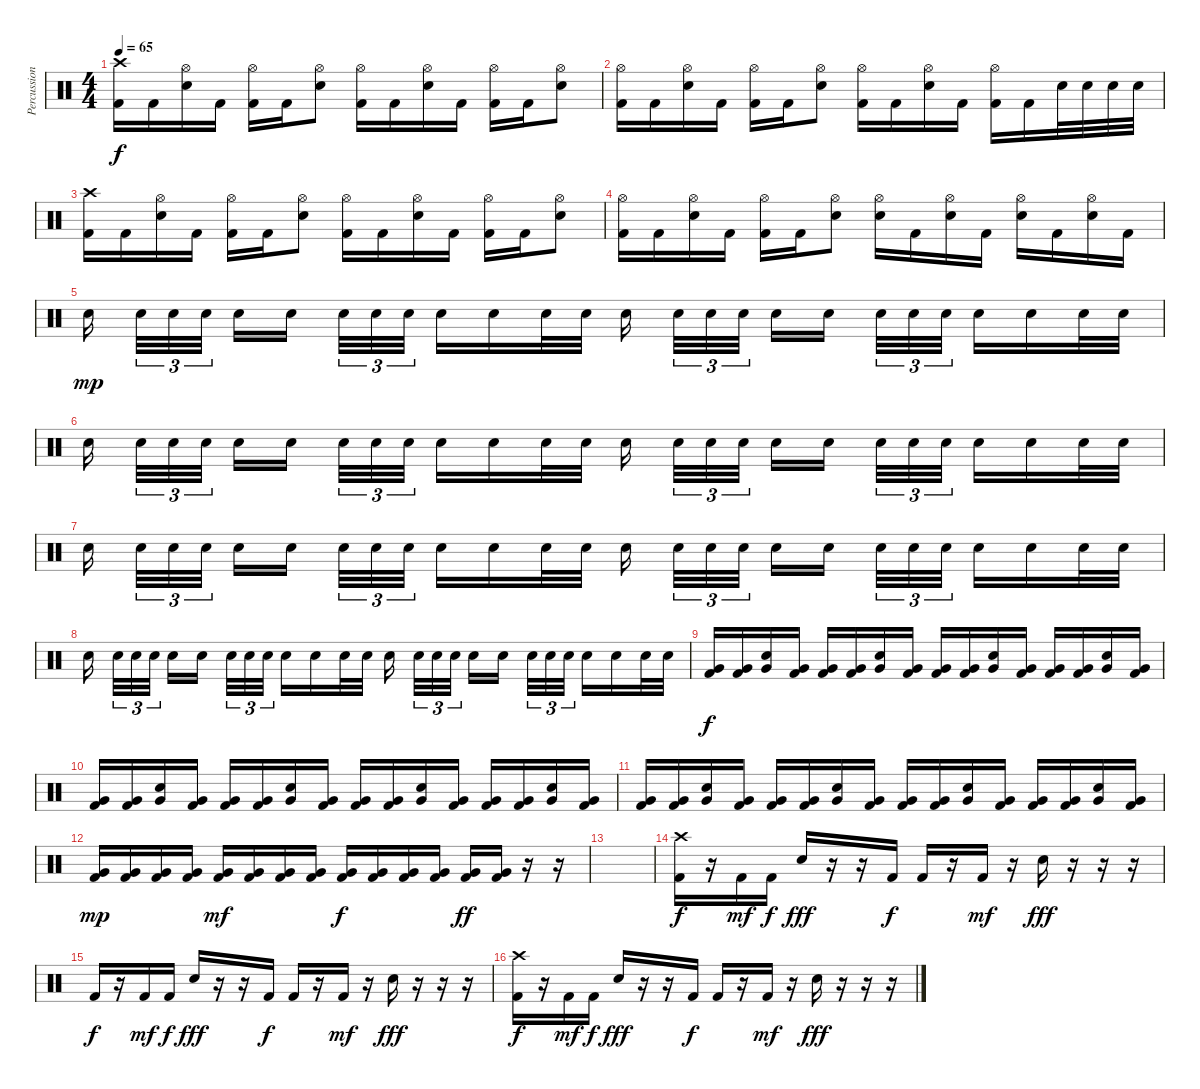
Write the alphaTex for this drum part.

\track ("Percussion" "Percussion") {instrument percussion}
\staff {score}
\articulation defaults
\ts (4 4)
\tempo 65
\clef neutral
\ks c
("Crash high (hit)" "Kick (hit) 2").16{dy f volume 13} "Kick (hit) 2".16 ("Hi-Hat (open)" "Snare (hit) 2").16 "Kick (hit) 2".16 ("Hi-Hat (open)" "Kick (hit) 2").16 "Kick (hit) 2".16 ("Hi-Hat (open)" "Snare (hit) 2").8 ("Hi-Hat (open)" "Kick (hit) 2").16 "Kick (hit) 2".16 ("Hi-Hat (open)" "Snare (hit) 2").16 "Kick (hit) 2".16 ("Hi-Hat (open)" "Kick (hit) 2").16 "Kick (hit) 2".16 ("Hi-Hat (open)" "Snare (hit) 2").8 |
("Hi-Hat (open)" "Kick (hit) 2").16 "Kick (hit) 2".16 ("Hi-Hat (open)" "Snare (hit) 2").16 "Kick (hit) 2".16 ("Hi-Hat (open)" "Kick (hit) 2").16 "Kick (hit) 2".16 ("Hi-Hat (open)" "Snare (hit) 2").8 ("Hi-Hat (open)" "Kick (hit) 2").16 "Kick (hit) 2".16 ("Hi-Hat (open)" "Snare (hit) 2").16 "Kick (hit) 2".16 ("Hi-Hat (open)" "Kick (hit) 2").16 "Kick (hit) 2".16 "Snare (hit) 2".32 "Snare (hit) 2".32 "Snare (hit) 2".32 "Snare (hit) 2".32 |
("Crash high (hit)" "Kick (hit) 2").16 "Kick (hit) 2".16 ("Hi-Hat (open)" "Snare (hit) 2").16 "Kick (hit) 2".16 ("Hi-Hat (open)" "Kick (hit) 2").16 "Kick (hit) 2".16 ("Hi-Hat (open)" "Snare (hit) 2").8 ("Hi-Hat (open)" "Kick (hit) 2").16 "Kick (hit) 2".16 ("Hi-Hat (open)" "Snare (hit) 2").16 "Kick (hit) 2".16 ("Hi-Hat (open)" "Kick (hit) 2").16 "Kick (hit) 2".16 ("Hi-Hat (open)" "Snare (hit) 2").8 |
("Hi-Hat (open)" "Kick (hit) 2").16 "Kick (hit) 2".16 ("Hi-Hat (open)" "Snare (hit) 2").16 "Kick (hit) 2".16 ("Hi-Hat (open)" "Kick (hit) 2").16 "Kick (hit) 2".16 ("Hi-Hat (open)" "Snare (hit) 2").8 ("Hi-Hat (open)" "Snare (hit) 2").16 "Kick (hit) 2".16 ("Hi-Hat (open)" "Snare (hit) 2").16 "Kick (hit) 2".16 ("Hi-Hat (open)" "Snare (hit) 2").16 "Kick (hit) 2".16 ("Hi-Hat (open)" "Snare (hit) 2").16 "Kick (hit) 2".16 |
"Snare (hit) 2".16{dy mp beam splitsecondary} "Snare (hit) 2".32{tu (3 2)} "Snare (hit) 2".32{tu (3 2)} "Snare (hit) 2".32{tu (3 2) beam splitsecondary} "Snare (hit) 2".16 "Snare (hit) 2".16 "Snare (hit) 2".32{tu (3 2)} "Snare (hit) 2".32{tu (3 2)} "Snare (hit) 2".32{tu (3 2) beam splitsecondary} "Snare (hit) 2".16 "Snare (hit) 2".16 "Snare (hit) 2".32 "Snare (hit) 2".32 "Snare (hit) 2".16{beam splitsecondary} "Snare (hit) 2".32{tu (3 2)} "Snare (hit) 2".32{tu (3 2)} "Snare (hit) 2".32{tu (3 2) beam splitsecondary} "Snare (hit) 2".16 "Snare (hit) 2".16 "Snare (hit) 2".32{tu (3 2)} "Snare (hit) 2".32{tu (3 2)} "Snare (hit) 2".32{tu (3 2) beam splitsecondary} "Snare (hit) 2".16 "Snare (hit) 2".16 "Snare (hit) 2".32 "Snare (hit) 2".32 |
"Snare (hit) 2".16{beam splitsecondary} "Snare (hit) 2".32{tu (3 2)} "Snare (hit) 2".32{tu (3 2)} "Snare (hit) 2".32{tu (3 2) beam splitsecondary} "Snare (hit) 2".16 "Snare (hit) 2".16 "Snare (hit) 2".32{tu (3 2)} "Snare (hit) 2".32{tu (3 2)} "Snare (hit) 2".32{tu (3 2) beam splitsecondary} "Snare (hit) 2".16 "Snare (hit) 2".16 "Snare (hit) 2".32 "Snare (hit) 2".32 "Snare (hit) 2".16{beam splitsecondary} "Snare (hit) 2".32{tu (3 2)} "Snare (hit) 2".32{tu (3 2)} "Snare (hit) 2".32{tu (3 2) beam splitsecondary} "Snare (hit) 2".16 "Snare (hit) 2".16 "Snare (hit) 2".32{tu (3 2)} "Snare (hit) 2".32{tu (3 2)} "Snare (hit) 2".32{tu (3 2) beam splitsecondary} "Snare (hit) 2".16 "Snare (hit) 2".16 "Snare (hit) 2".32 "Snare (hit) 2".32 |
"Snare (hit) 2".16{beam splitsecondary} "Snare (hit) 2".32{tu (3 2)} "Snare (hit) 2".32{tu (3 2)} "Snare (hit) 2".32{tu (3 2) beam splitsecondary} "Snare (hit) 2".16 "Snare (hit) 2".16 "Snare (hit) 2".32{tu (3 2)} "Snare (hit) 2".32{tu (3 2)} "Snare (hit) 2".32{tu (3 2) beam splitsecondary} "Snare (hit) 2".16 "Snare (hit) 2".16 "Snare (hit) 2".32 "Snare (hit) 2".32 "Snare (hit) 2".16{beam splitsecondary} "Snare (hit) 2".32{tu (3 2)} "Snare (hit) 2".32{tu (3 2)} "Snare (hit) 2".32{tu (3 2) beam splitsecondary} "Snare (hit) 2".16 "Snare (hit) 2".16 "Snare (hit) 2".32{tu (3 2)} "Snare (hit) 2".32{tu (3 2)} "Snare (hit) 2".32{tu (3 2) beam splitsecondary} "Snare (hit) 2".16 "Snare (hit) 2".16 "Snare (hit) 2".32 "Snare (hit) 2".32 |
"Snare (hit) 2".16{beam splitsecondary} "Snare (hit) 2".32{tu (3 2)} "Snare (hit) 2".32{tu (3 2)} "Snare (hit) 2".32{tu (3 2) beam splitsecondary} "Snare (hit) 2".16 "Snare (hit) 2".16 "Snare (hit) 2".32{tu (3 2)} "Snare (hit) 2".32{tu (3 2)} "Snare (hit) 2".32{tu (3 2) beam splitsecondary} "Snare (hit) 2".16 "Snare (hit) 2".16 "Snare (hit) 2".32 "Snare (hit) 2".32 "Snare (hit) 2".16{beam splitsecondary} "Snare (hit) 2".32{tu (3 2)} "Snare (hit) 2".32{tu (3 2)} "Snare (hit) 2".32{tu (3 2) beam splitsecondary} "Snare (hit) 2".16 "Snare (hit) 2".16 "Snare (hit) 2".32{tu (3 2)} "Snare (hit) 2".32{tu (3 2)} "Snare (hit) 2".32{tu (3 2) beam splitsecondary} "Snare (hit) 2".16 "Snare (hit) 2".16 "Snare (hit) 2".32 "Snare (hit) 2".32 |
("Very Low Tom (hit)" "Kick (hit) 2").16{dy f} ("Very Low Tom (hit)" "Kick (hit) 2").16 ("Snare (hit) 2" "Very Low Tom (hit)").16 ("Very Low Tom (hit)" "Kick (hit) 2").16 ("Very Low Tom (hit)" "Kick (hit) 2").16 ("Very Low Tom (hit)" "Kick (hit) 2").16 ("Snare (hit) 2" "Very Low Tom (hit)").16 ("Very Low Tom (hit)" "Kick (hit) 2").16 ("Very Low Tom (hit)" "Kick (hit) 2").16 ("Very Low Tom (hit)" "Kick (hit) 2").16 ("Snare (hit) 2" "Very Low Tom (hit)").16 ("Very Low Tom (hit)" "Kick (hit) 2").16 ("Very Low Tom (hit)" "Kick (hit) 2").16 ("Very Low Tom (hit)" "Kick (hit) 2").16 ("Snare (hit) 2" "Very Low Tom (hit)").16 ("Very Low Tom (hit)" "Kick (hit) 2").16 |
("Very Low Tom (hit)" "Kick (hit) 2").16 ("Very Low Tom (hit)" "Kick (hit) 2").16 ("Snare (hit) 2" "Very Low Tom (hit)").16 ("Very Low Tom (hit)" "Kick (hit) 2").16 ("Very Low Tom (hit)" "Kick (hit) 2").16 ("Very Low Tom (hit)" "Kick (hit) 2").16 ("Snare (hit) 2" "Very Low Tom (hit)").16 ("Very Low Tom (hit)" "Kick (hit) 2").16 ("Very Low Tom (hit)" "Kick (hit) 2").16 ("Very Low Tom (hit)" "Kick (hit) 2").16 ("Snare (hit) 2" "Very Low Tom (hit)").16 ("Very Low Tom (hit)" "Kick (hit) 2").16 ("Very Low Tom (hit)" "Kick (hit) 2").16 ("Very Low Tom (hit)" "Kick (hit) 2").16 ("Snare (hit) 2" "Very Low Tom (hit)").16 ("Very Low Tom (hit)" "Kick (hit) 2").16 |
("Very Low Tom (hit)" "Kick (hit) 2").16 ("Very Low Tom (hit)" "Kick (hit) 2").16 ("Snare (hit) 2" "Very Low Tom (hit)").16 ("Very Low Tom (hit)" "Kick (hit) 2").16 ("Very Low Tom (hit)" "Kick (hit) 2").16 ("Very Low Tom (hit)" "Kick (hit) 2").16 ("Snare (hit) 2" "Very Low Tom (hit)").16 ("Very Low Tom (hit)" "Kick (hit) 2").16 ("Very Low Tom (hit)" "Kick (hit) 2").16 ("Very Low Tom (hit)" "Kick (hit) 2").16 ("Snare (hit) 2" "Very Low Tom (hit)").16 ("Very Low Tom (hit)" "Kick (hit) 2").16 ("Very Low Tom (hit)" "Kick (hit) 2").16 ("Very Low Tom (hit)" "Kick (hit) 2").16 ("Snare (hit) 2" "Very Low Tom (hit)").16 ("Very Low Tom (hit)" "Kick (hit) 2").16 |
("Very Low Tom (hit)" "Kick (hit) 2").16{dy mp} ("Very Low Tom (hit)" "Kick (hit) 2").16 ("Very Low Tom (hit)" "Kick (hit) 2").16 ("Very Low Tom (hit)" "Kick (hit) 2").16 ("Very Low Tom (hit)" "Kick (hit) 2").16{dy mf} ("Very Low Tom (hit)" "Kick (hit) 2").16 ("Very Low Tom (hit)" "Kick (hit) 2").16 ("Very Low Tom (hit)" "Kick (hit) 2").16 ("Very Low Tom (hit)" "Kick (hit) 2").16{dy f} ("Very Low Tom (hit)" "Kick (hit) 2").16 ("Very Low Tom (hit)" "Kick (hit) 2").16 ("Very Low Tom (hit)" "Kick (hit) 2").16 ("Very Low Tom (hit)" "Kick (hit) 2").16{dy ff} ("Very Low Tom (hit)" "Kick (hit) 2").16 r.16 r.16 |
|
("Crash high (hit)" "Kick (hit) 2").16{dy f volume 13} r.16 "Kick (hit) 2".16{dy mf} "Kick (hit) 2".16{dy f} "Snare (hit) 2".16{dy fff} r.16 r.16 "Kick (hit) 2".16{dy f} "Kick (hit) 2".16 r.16 "Kick (hit) 2".16{dy mf} r.16 "Snare (hit) 2".16{dy fff} r.16 r.16 r.16 |
"Kick (hit) 2".16{dy f} r.16 "Kick (hit) 2".16{dy mf} "Kick (hit) 2".16{dy f} "Snare (hit) 2".16{dy fff} r.16 r.16 "Kick (hit) 2".16{dy f} "Kick (hit) 2".16 r.16 "Kick (hit) 2".16{dy mf} r.16 "Snare (hit) 2".16{dy fff} r.16 r.16 r.16 |
("Crash high (hit)" "Kick (hit) 2").16{dy f} r.16 "Kick (hit) 2".16{dy mf} "Kick (hit) 2".16{dy f} "Snare (hit) 2".16{dy fff} r.16 r.16 "Kick (hit) 2".16{dy f} "Kick (hit) 2".16 r.16 "Kick (hit) 2".16{dy mf} r.16 "Snare (hit) 2".16{dy fff} r.16 r.16 r.16
